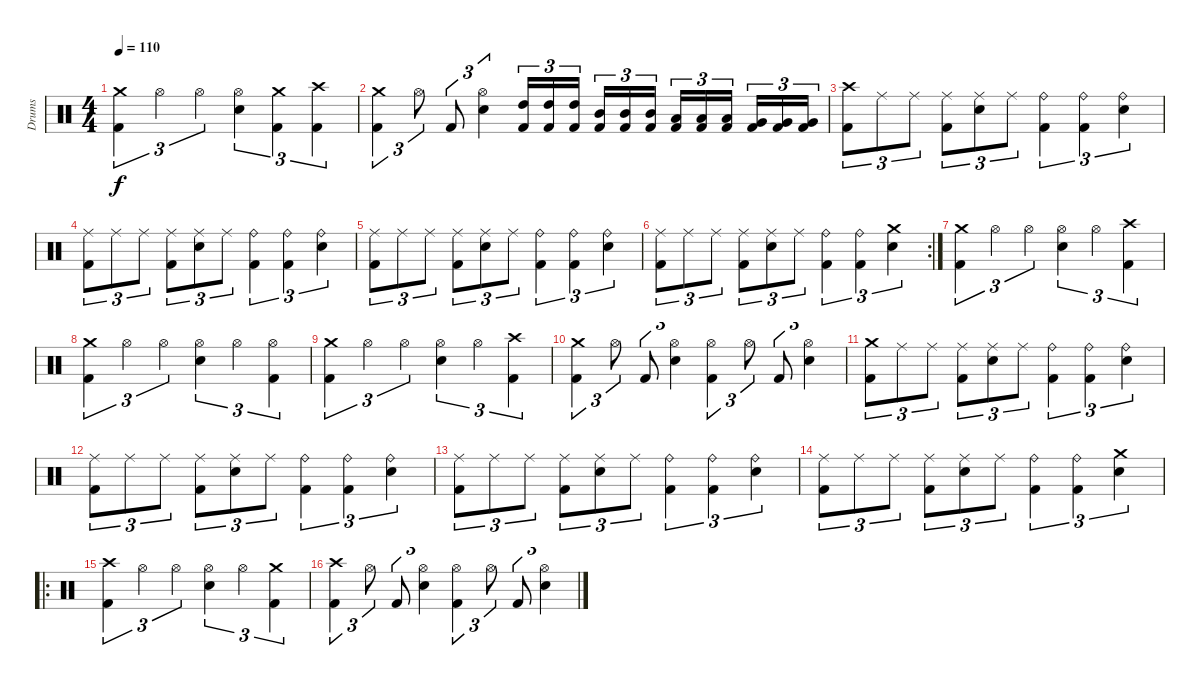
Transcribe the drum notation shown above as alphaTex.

\track ("Drums" "Drums") {instrument percussion}
\staff {score}
\articulation defaults
\ts (4 4)
\tempo 110
\clef neutral
\ks c
("Kick (hit) 2" "Crash medium (hit)").4{tu (3 2) dy f} "Hi-Hat (open)".4{tu (3 2)} "Hi-Hat (open)".4{tu (3 2)} ("Electric Snare (hit)" "Hi-Hat (open)").4{tu (3 2)} ("Kick (hit) 2" "Crash medium (hit)").4{tu (3 2)} ("Kick (hit) 2" "Crash high (hit)").4{tu (3 2)} |
("Kick (hit) 2" "Crash medium (hit)").4{tu (3 2)} "Hi-Hat (open)".8{tu (3 2)} "Kick (hit) 2".8{tu (3 2)} ("Electric Snare (hit)" "Hi-Hat (open)").4{tu (3 2)} ("Kick (hit) 2" "High Tom (hit)").16{tu (3 2)} ("Kick (hit) 2" "High Tom (hit)").16{tu (3 2)} ("Kick (hit) 2" "High Tom (hit)").16{tu (3 2)} ("Kick (hit) 2" "Mid Tom (hit)").16{tu (3 2)} ("Kick (hit) 2" "Mid Tom (hit)").16{tu (3 2)} ("Kick (hit) 2" "Mid Tom (hit)").16{tu (3 2)} ("Kick (hit) 2" "Low Tom (hit)").16{tu (3 2)} ("Kick (hit) 2" "Low Tom (hit)").16{tu (3 2)} ("Kick (hit) 2" "Low Tom (hit)").16{tu (3 2)} ("Kick (hit) 2" "Very Low Tom (hit)").16{tu (3 2)} ("Kick (hit) 2" "Very Low Tom (hit)").16{tu (3 2)} ("Kick (hit) 2" "Very Low Tom (hit)").16{tu (3 2)} |
("Kick (hit) 2" "Crash high (hit)").8{tu (3 2)} "Ride (middle)".8{tu (3 2)} "Ride (middle)".8{tu (3 2)} ("Kick (hit) 2" "Ride (middle)").8{tu (3 2)} ("Electric Snare (hit)" "Ride (middle)").8{tu (3 2)} "Ride (middle)".8{tu (3 2)} ("Kick (hit) 2" "Ride (bell)").4{tu (3 2)} ("Kick (hit) 2" "Ride (bell)").4{tu (3 2)} ("Electric Snare (hit)" "Ride (bell)").4{tu (3 2)} |
("Kick (hit) 2" "Ride (middle)").8{tu (3 2)} "Ride (middle)".8{tu (3 2)} "Ride (middle)".8{tu (3 2)} ("Kick (hit) 2" "Ride (middle)").8{tu (3 2)} ("Electric Snare (hit)" "Ride (middle)").8{tu (3 2)} "Ride (middle)".8{tu (3 2)} ("Kick (hit) 2" "Ride (bell)").4{tu (3 2)} ("Kick (hit) 2" "Ride (bell)").4{tu (3 2)} ("Electric Snare (hit)" "Ride (bell)").4{tu (3 2)} |
("Kick (hit) 2" "Ride (middle)").8{tu (3 2)} "Ride (middle)".8{tu (3 2)} "Ride (middle)".8{tu (3 2)} ("Kick (hit) 2" "Ride (middle)").8{tu (3 2)} ("Electric Snare (hit)" "Ride (middle)").8{tu (3 2)} "Ride (middle)".8{tu (3 2)} ("Kick (hit) 2" "Ride (bell)").4{tu (3 2)} ("Kick (hit) 2" "Ride (bell)").4{tu (3 2)} ("Electric Snare (hit)" "Ride (bell)").4{tu (3 2)} |
\rc 2
("Kick (hit) 2" "Ride (middle)").8{tu (3 2)} "Ride (middle)".8{tu (3 2)} "Ride (middle)".8{tu (3 2)} ("Kick (hit) 2" "Ride (middle)").8{tu (3 2)} ("Electric Snare (hit)" "Ride (middle)").8{tu (3 2)} "Ride (middle)".8{tu (3 2)} ("Kick (hit) 2" "Ride (bell)").4{tu (3 2)} ("Kick (hit) 2" "Ride (bell)").4{tu (3 2)} ("Electric Snare (hit)" "Crash medium (hit)").4{tu (3 2)} |
("Kick (hit) 2" "Crash medium (hit)").4{tu (3 2)} "Hi-Hat (open)".4{tu (3 2)} "Hi-Hat (open)".4{tu (3 2)} ("Electric Snare (hit)" "Hi-Hat (open)").4{tu (3 2)} "Hi-Hat (open)".4{tu (3 2)} ("Kick (hit) 2" "Crash high (hit)").4{tu (3 2)} |
("Kick (hit) 2" "Crash medium (hit)").4{tu (3 2)} "Hi-Hat (open)".4{tu (3 2)} "Hi-Hat (open)".4{tu (3 2)} ("Electric Snare (hit)" "Hi-Hat (open)").4{tu (3 2)} "Hi-Hat (open)".4{tu (3 2)} ("Kick (hit) 2" "Hi-Hat (open)").4{tu (3 2)} |
("Kick (hit) 2" "Crash medium (hit)").4{tu (3 2)} "Hi-Hat (open)".4{tu (3 2)} "Hi-Hat (open)".4{tu (3 2)} ("Electric Snare (hit)" "Hi-Hat (open)").4{tu (3 2)} "Hi-Hat (open)".4{tu (3 2)} ("Kick (hit) 2" "Crash high (hit)").4{tu (3 2)} |
("Kick (hit) 2" "Crash medium (hit)").4{tu (3 2)} "Hi-Hat (open)".8{tu (3 2)} "Kick (hit) 2".8{tu (3 2)} ("Electric Snare (hit)" "Hi-Hat (open)").4{tu (3 2)} ("Kick (hit) 2" "Hi-Hat (open)").4{tu (3 2)} "Hi-Hat (open)".8{tu (3 2)} "Kick (hit) 2".8{tu (3 2)} ("Electric Snare (hit)" "Hi-Hat (open)").4{tu (3 2)} |
("Kick (hit) 2" "Crash medium (hit)").8{tu (3 2)} "Ride (middle)".8{tu (3 2)} "Ride (middle)".8{tu (3 2)} ("Kick (hit) 2" "Ride (middle)").8{tu (3 2)} ("Electric Snare (hit)" "Ride (middle)").8{tu (3 2)} "Ride (middle)".8{tu (3 2)} ("Kick (hit) 2" "Ride (bell)").4{tu (3 2)} ("Kick (hit) 2" "Ride (bell)").4{tu (3 2)} ("Electric Snare (hit)" "Ride (bell)").4{tu (3 2)} |
("Kick (hit) 2" "Ride (middle)").8{tu (3 2)} "Ride (middle)".8{tu (3 2)} "Ride (middle)".8{tu (3 2)} ("Kick (hit) 2" "Ride (middle)").8{tu (3 2)} ("Electric Snare (hit)" "Ride (middle)").8{tu (3 2)} "Ride (middle)".8{tu (3 2)} ("Kick (hit) 2" "Ride (bell)").4{tu (3 2)} ("Kick (hit) 2" "Ride (bell)").4{tu (3 2)} ("Electric Snare (hit)" "Ride (bell)").4{tu (3 2)} |
("Kick (hit) 2" "Ride (middle)").8{tu (3 2)} "Ride (middle)".8{tu (3 2)} "Ride (middle)".8{tu (3 2)} ("Kick (hit) 2" "Ride (middle)").8{tu (3 2)} ("Electric Snare (hit)" "Ride (middle)").8{tu (3 2)} "Ride (middle)".8{tu (3 2)} ("Kick (hit) 2" "Ride (bell)").4{tu (3 2)} ("Kick (hit) 2" "Ride (bell)").4{tu (3 2)} ("Electric Snare (hit)" "Ride (bell)").4{tu (3 2)} |
("Kick (hit) 2" "Ride (middle)").8{tu (3 2)} "Ride (middle)".8{tu (3 2)} "Ride (middle)".8{tu (3 2)} ("Kick (hit) 2" "Ride (middle)").8{tu (3 2)} ("Electric Snare (hit)" "Ride (middle)").8{tu (3 2)} "Ride (middle)".8{tu (3 2)} ("Kick (hit) 2" "Ride (bell)").4{tu (3 2)} ("Kick (hit) 2" "Ride (bell)").4{tu (3 2)} ("Electric Snare (hit)" "Crash medium (hit)").4{tu (3 2)} |
\ro
("Kick (hit) 2" "Crash high (hit)").4{tu (3 2)} "Hi-Hat (open)".4{tu (3 2)} "Hi-Hat (open)".4{tu (3 2)} ("Electric Snare (hit)" "Hi-Hat (open)").4{tu (3 2)} "Hi-Hat (open)".4{tu (3 2)} ("Kick (hit) 2" "Crash medium (hit)").4{tu (3 2)} |
("Kick (hit) 2" "Crash high (hit)").4{tu (3 2)} "Hi-Hat (open)".8{tu (3 2)} "Kick (hit) 2".8{tu (3 2)} ("Electric Snare (hit)" "Hi-Hat (open)").4{tu (3 2)} ("Kick (hit) 2" "Hi-Hat (open)").4{tu (3 2)} "Hi-Hat (open)".8{tu (3 2)} "Kick (hit) 2".8{tu (3 2)} ("Electric Snare (hit)" "Hi-Hat (open)").4{tu (3 2)}
